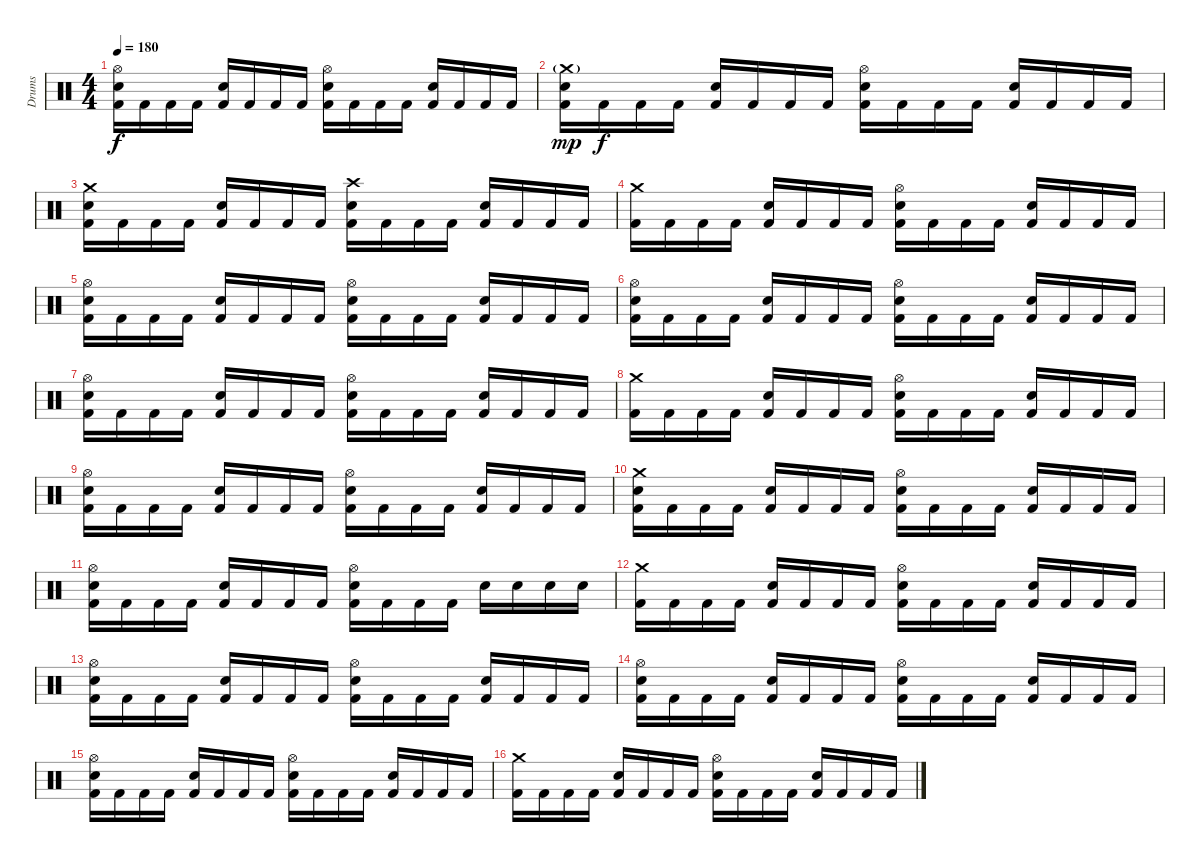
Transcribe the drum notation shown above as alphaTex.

\track ("Drums" "Drums") {instrument percussion}
\staff {score}
\articulation defaults
\ts (4 4)
\tempo 180
\clef neutral
\ks c
("Hi-Hat (open)" "Electric Snare (hit)" "Kick (hit) 2").16{dy f} "Kick (hit) 2".16 "Kick (hit) 2".16 "Kick (hit) 2".16 ("Electric Snare (hit)" "Kick (hit) 2").16 "Kick (hit) 2".16 "Kick (hit) 2".16 "Kick (hit) 2".16 ("Hi-Hat (open)" "Electric Snare (hit)" "Kick (hit) 2").16 "Kick (hit) 2".16 "Kick (hit) 2".16 "Kick (hit) 2".16 ("Electric Snare (hit)" "Kick (hit) 2").16 "Kick (hit) 2".16 "Kick (hit) 2".16 "Kick (hit) 2".16 |
("Crash medium (hit)"{g} "Electric Snare (hit)" "Kick (hit) 2").16{dy mp} "Kick (hit) 2".16{dy f} "Kick (hit) 2".16 "Kick (hit) 2".16 ("Electric Snare (hit)" "Kick (hit) 2").16 "Kick (hit) 2".16 "Kick (hit) 2".16 "Kick (hit) 2".16 ("Hi-Hat (open)" "Electric Snare (hit)" "Kick (hit) 2").16 "Kick (hit) 2".16 "Kick (hit) 2".16 "Kick (hit) 2".16 ("Electric Snare (hit)" "Kick (hit) 2").16 "Kick (hit) 2".16 "Kick (hit) 2".16 "Kick (hit) 2".16 |
("Crash medium (hit)" "Electric Snare (hit)" "Kick (hit) 2").16 "Kick (hit) 2".16 "Kick (hit) 2".16 "Kick (hit) 2".16 ("Electric Snare (hit)" "Kick (hit) 2").16 "Kick (hit) 2".16 "Kick (hit) 2".16 "Kick (hit) 2".16 ("Crash high (hit)" "Electric Snare (hit)" "Kick (hit) 2").16 "Kick (hit) 2".16 "Kick (hit) 2".16 "Kick (hit) 2".16 ("Electric Snare (hit)" "Kick (hit) 2").16 "Kick (hit) 2".16 "Kick (hit) 2".16 "Kick (hit) 2".16 |
("Crash medium (hit)" "Kick (hit) 2").16 "Kick (hit) 2".16 "Kick (hit) 2".16 "Kick (hit) 2".16 ("Electric Snare (hit)" "Kick (hit) 2").16 "Kick (hit) 2".16 "Kick (hit) 2".16 "Kick (hit) 2".16 ("Hi-Hat (open)" "Electric Snare (hit)" "Kick (hit) 2").16 "Kick (hit) 2".16 "Kick (hit) 2".16 "Kick (hit) 2".16 ("Electric Snare (hit)" "Kick (hit) 2").16 "Kick (hit) 2".16 "Kick (hit) 2".16 "Kick (hit) 2".16 |
("Hi-Hat (open)" "Electric Snare (hit)" "Kick (hit) 2").16 "Kick (hit) 2".16 "Kick (hit) 2".16 "Kick (hit) 2".16 ("Electric Snare (hit)" "Kick (hit) 2").16 "Kick (hit) 2".16 "Kick (hit) 2".16 "Kick (hit) 2".16 ("Hi-Hat (open)" "Electric Snare (hit)" "Kick (hit) 2").16 "Kick (hit) 2".16 "Kick (hit) 2".16 "Kick (hit) 2".16 ("Electric Snare (hit)" "Kick (hit) 2").16 "Kick (hit) 2".16 "Kick (hit) 2".16 "Kick (hit) 2".16 |
("Hi-Hat (open)" "Electric Snare (hit)" "Kick (hit) 2").16 "Kick (hit) 2".16 "Kick (hit) 2".16 "Kick (hit) 2".16 ("Electric Snare (hit)" "Kick (hit) 2").16 "Kick (hit) 2".16 "Kick (hit) 2".16 "Kick (hit) 2".16 ("Hi-Hat (open)" "Electric Snare (hit)" "Kick (hit) 2").16 "Kick (hit) 2".16 "Kick (hit) 2".16 "Kick (hit) 2".16 ("Electric Snare (hit)" "Kick (hit) 2").16 "Kick (hit) 2".16 "Kick (hit) 2".16 "Kick (hit) 2".16 |
("Hi-Hat (open)" "Electric Snare (hit)" "Kick (hit) 2").16 "Kick (hit) 2".16 "Kick (hit) 2".16 "Kick (hit) 2".16 ("Electric Snare (hit)" "Kick (hit) 2").16 "Kick (hit) 2".16 "Kick (hit) 2".16 "Kick (hit) 2".16 ("Hi-Hat (open)" "Electric Snare (hit)" "Kick (hit) 2").16 "Kick (hit) 2".16 "Kick (hit) 2".16 "Kick (hit) 2".16 ("Electric Snare (hit)" "Kick (hit) 2").16 "Kick (hit) 2".16 "Kick (hit) 2".16 "Kick (hit) 2".16 |
("Crash medium (hit)" "Kick (hit) 2").16 "Kick (hit) 2".16 "Kick (hit) 2".16 "Kick (hit) 2".16 ("Electric Snare (hit)" "Kick (hit) 2").16 "Kick (hit) 2".16 "Kick (hit) 2".16 "Kick (hit) 2".16 ("Hi-Hat (open)" "Electric Snare (hit)" "Kick (hit) 2").16 "Kick (hit) 2".16 "Kick (hit) 2".16 "Kick (hit) 2".16 ("Electric Snare (hit)" "Kick (hit) 2").16 "Kick (hit) 2".16 "Kick (hit) 2".16 "Kick (hit) 2".16 |
("Hi-Hat (open)" "Electric Snare (hit)" "Kick (hit) 2").16 "Kick (hit) 2".16 "Kick (hit) 2".16 "Kick (hit) 2".16 ("Electric Snare (hit)" "Kick (hit) 2").16 "Kick (hit) 2".16 "Kick (hit) 2".16 "Kick (hit) 2".16 ("Hi-Hat (open)" "Electric Snare (hit)" "Kick (hit) 2").16 "Kick (hit) 2".16 "Kick (hit) 2".16 "Kick (hit) 2".16 ("Electric Snare (hit)" "Kick (hit) 2").16 "Kick (hit) 2".16 "Kick (hit) 2".16 "Kick (hit) 2".16 |
("Crash medium (hit)" "Electric Snare (hit)" "Kick (hit) 2").16 "Kick (hit) 2".16 "Kick (hit) 2".16 "Kick (hit) 2".16 ("Electric Snare (hit)" "Kick (hit) 2").16 "Kick (hit) 2".16 "Kick (hit) 2".16 "Kick (hit) 2".16 ("Hi-Hat (open)" "Electric Snare (hit)" "Kick (hit) 2").16 "Kick (hit) 2".16 "Kick (hit) 2".16 "Kick (hit) 2".16 ("Electric Snare (hit)" "Kick (hit) 2").16 "Kick (hit) 2".16 "Kick (hit) 2".16 "Kick (hit) 2".16 |
("Hi-Hat (open)" "Electric Snare (hit)" "Kick (hit) 2").16 "Kick (hit) 2".16 "Kick (hit) 2".16 "Kick (hit) 2".16 ("Electric Snare (hit)" "Kick (hit) 2").16 "Kick (hit) 2".16 "Kick (hit) 2".16 "Kick (hit) 2".16 ("Hi-Hat (open)" "Electric Snare (hit)" "Kick (hit) 2").16 "Kick (hit) 2".16 "Kick (hit) 2".16 "Kick (hit) 2".16 "Electric Snare (hit)".16 "Electric Snare (hit)".16 "Electric Snare (hit)".16 "Electric Snare (hit)".16 |
("Crash medium (hit)" "Kick (hit) 2").16 "Kick (hit) 2".16 "Kick (hit) 2".16 "Kick (hit) 2".16 ("Electric Snare (hit)" "Kick (hit) 2").16 "Kick (hit) 2".16 "Kick (hit) 2".16 "Kick (hit) 2".16 ("Hi-Hat (open)" "Electric Snare (hit)" "Kick (hit) 2").16 "Kick (hit) 2".16 "Kick (hit) 2".16 "Kick (hit) 2".16 ("Electric Snare (hit)" "Kick (hit) 2").16 "Kick (hit) 2".16 "Kick (hit) 2".16 "Kick (hit) 2".16 |
("Hi-Hat (open)" "Electric Snare (hit)" "Kick (hit) 2").16 "Kick (hit) 2".16 "Kick (hit) 2".16 "Kick (hit) 2".16 ("Electric Snare (hit)" "Kick (hit) 2").16 "Kick (hit) 2".16 "Kick (hit) 2".16 "Kick (hit) 2".16 ("Hi-Hat (open)" "Electric Snare (hit)" "Kick (hit) 2").16 "Kick (hit) 2".16 "Kick (hit) 2".16 "Kick (hit) 2".16 ("Electric Snare (hit)" "Kick (hit) 2").16 "Kick (hit) 2".16 "Kick (hit) 2".16 "Kick (hit) 2".16 |
("Hi-Hat (open)" "Electric Snare (hit)" "Kick (hit) 2").16 "Kick (hit) 2".16 "Kick (hit) 2".16 "Kick (hit) 2".16 ("Electric Snare (hit)" "Kick (hit) 2").16 "Kick (hit) 2".16 "Kick (hit) 2".16 "Kick (hit) 2".16 ("Hi-Hat (open)" "Electric Snare (hit)" "Kick (hit) 2").16 "Kick (hit) 2".16 "Kick (hit) 2".16 "Kick (hit) 2".16 ("Electric Snare (hit)" "Kick (hit) 2").16 "Kick (hit) 2".16 "Kick (hit) 2".16 "Kick (hit) 2".16 |
("Hi-Hat (open)" "Electric Snare (hit)" "Kick (hit) 2").16 "Kick (hit) 2".16 "Kick (hit) 2".16 "Kick (hit) 2".16 ("Electric Snare (hit)" "Kick (hit) 2").16 "Kick (hit) 2".16 "Kick (hit) 2".16 "Kick (hit) 2".16 ("Hi-Hat (open)" "Electric Snare (hit)" "Kick (hit) 2").16 "Kick (hit) 2".16 "Kick (hit) 2".16 "Kick (hit) 2".16 ("Electric Snare (hit)" "Kick (hit) 2").16 "Kick (hit) 2".16 "Kick (hit) 2".16 "Kick (hit) 2".16 |
("Crash medium (hit)" "Kick (hit) 2").16 "Kick (hit) 2".16 "Kick (hit) 2".16 "Kick (hit) 2".16 ("Electric Snare (hit)" "Kick (hit) 2").16 "Kick (hit) 2".16 "Kick (hit) 2".16 "Kick (hit) 2".16 ("Hi-Hat (open)" "Electric Snare (hit)" "Kick (hit) 2").16 "Kick (hit) 2".16 "Kick (hit) 2".16 "Kick (hit) 2".16 ("Electric Snare (hit)" "Kick (hit) 2").16 "Kick (hit) 2".16 "Kick (hit) 2".16 "Kick (hit) 2".16
